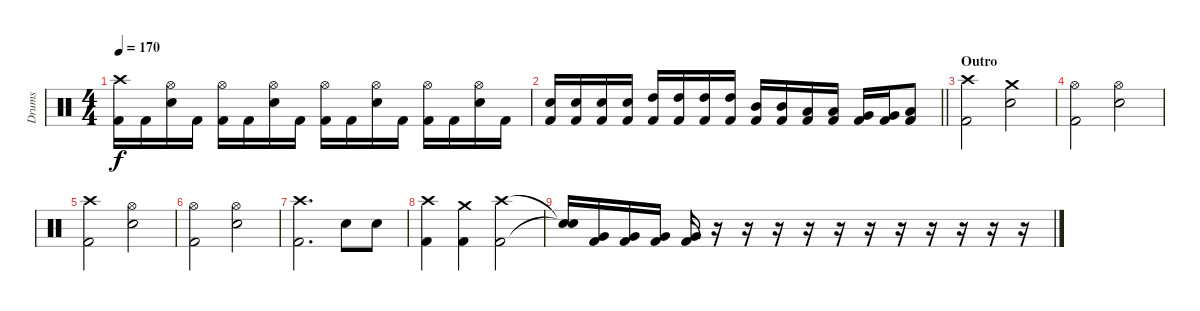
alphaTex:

\track ("Drums" "Drums") {instrument percussion}
\staff {score}
\articulation defaults
\ts (4 4)
\tempo 170
\clef neutral
\ks c
("Crash high (hit)" "Kick (hit) 2").16{dy f} "Kick (hit) 2".16 ("Hi-Hat (open)" "Electric Snare (hit)").16 "Kick (hit) 2".16 ("Hi-Hat (open)" "Kick (hit) 2").16 "Kick (hit) 2".16 ("Hi-Hat (open)" "Electric Snare (hit)").16 "Kick (hit) 2".16 ("Hi-Hat (open)" "Kick (hit) 2").16 "Kick (hit) 2".16 ("Hi-Hat (open)" "Electric Snare (hit)").16 "Kick (hit) 2".16 ("Hi-Hat (open)" "Kick (hit) 2").16 "Kick (hit) 2".16 ("Hi-Hat (open)" "Electric Snare (hit)").16 "Kick (hit) 2".16 |
\barLineRight lightlight
("Electric Snare (hit)" "Kick (hit) 2").16 ("Electric Snare (hit)" "Kick (hit) 2").16 ("Electric Snare (hit)" "Kick (hit) 2").16 ("Electric Snare (hit)" "Kick (hit) 2").16 ("High Tom (hit)" "Kick (hit) 2").16 ("High Tom (hit)" "Kick (hit) 2").16 ("High Tom (hit)" "Kick (hit) 2").16 ("High Tom (hit)" "Kick (hit) 2").16 ("Mid Tom (hit)" "Kick (hit) 2").16 ("Mid Tom (hit)" "Kick (hit) 2").16 ("Low Tom (hit)" "Kick (hit) 2").16 ("Low Tom (hit)" "Kick (hit) 2").16 ("Very Low Tom (hit)" "Kick (hit) 2").16 ("Very Low Tom (hit)" "Kick (hit) 2").16 ("Low Floor Tom (hit)" "Kick (hit) 2").8 |
\section ("" "Outro")
("Crash high (hit)" "Kick (hit) 2").2 ("Crash medium (hit)" "Snare (hit) 2").2 |
("Hi-Hat (open)" "Kick (hit) 2").2 ("Hi-Hat (open)" "Snare (hit) 2").2 |
("Crash high (hit)" "Kick (hit) 2").2 ("Hi-Hat (open)" "Snare (hit) 2").2 |
("Hi-Hat (open)" "Kick (hit) 2").2 ("Hi-Hat (open)" "Snare (hit) 2").2 |
("Crash high (hit)" "Kick (hit) 2").2{d} "Snare (hit) 2".8 "Snare (hit) 2".8 |
("Crash high (hit)" "Kick (hit) 2").4 ("Crash medium (hit)" "Kick (hit) 2").4 ("Crash high (hit)" "Kick (hit) 2").2 |
("Snare (hit)"{t} "Snare (hit)"{t}).16 ("Very Low Tom (hit)" "Kick (hit) 2").16 ("Very Low Tom (hit)" "Kick (hit) 2").16 ("Very Low Tom (hit)" "Kick (hit) 2").16 ("Very Low Tom (hit)" "Kick (hit) 2").16 r.16 r.16 r.16 r.16 r.16 r.16 r.16 r.16 r.16 r.16 r.16
